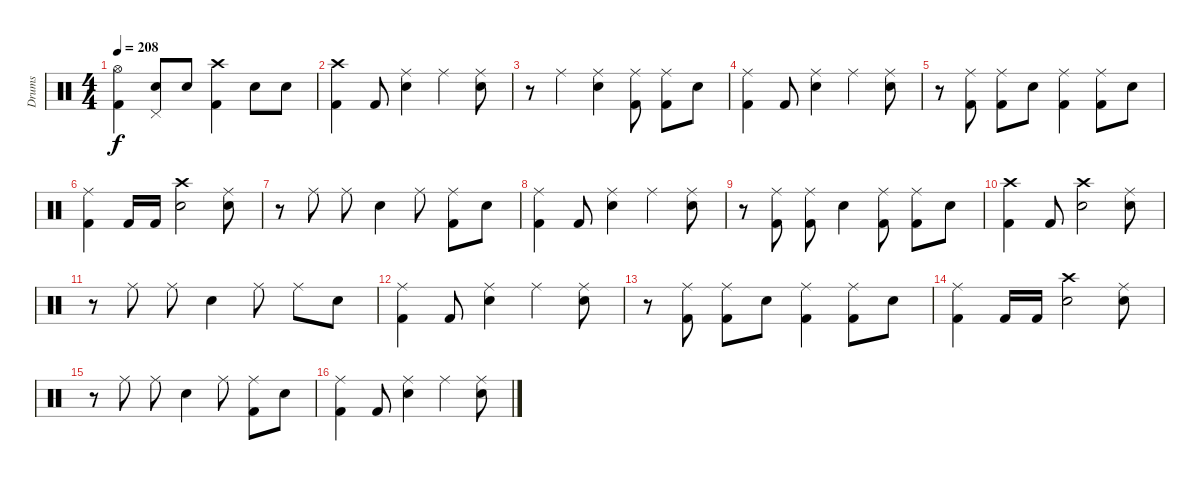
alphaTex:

\track ("Drums" "Drums") {instrument percussion}
\staff {score}
\articulation defaults
\ts (4 4)
\tempo 208
\clef neutral
\ks c
("Hi-Hat (open)" "Kick (hit) 2").4{dy f} ("Pedal Hi-Hat (hit)" "Electric Snare (hit)").8 "Electric Snare (hit)".8 ("Crash high (hit)" "Kick (hit) 2").4 "Electric Snare (hit)".8 "Electric Snare (hit)".8 |
("Crash high (hit)" "Kick (hit) 2").4 "Kick (hit) 2".8 ("Ride (middle)" "Electric Snare (hit)").4 "Ride (middle)".4 ("Ride (middle)" "Electric Snare (hit)").8 |
r.8 "Ride (middle)".4 ("Ride (middle)" "Electric Snare (hit)").4 ("Ride (middle)" "Kick (hit) 2").8 ("Ride (middle)" "Kick (hit) 2").8 "Electric Snare (hit)".8 |
("Ride (middle)" "Kick (hit) 2").4 "Kick (hit) 2".8 ("Ride (middle)" "Electric Snare (hit)").4 "Ride (middle)".4 ("Ride (middle)" "Electric Snare (hit)").8 |
r.8 ("Ride (middle)" "Kick (hit) 2").8 ("Ride (middle)" "Kick (hit) 2").8 "Electric Snare (hit)".8 ("Ride (middle)" "Kick (hit) 2").4 ("Ride (middle)" "Kick (hit) 2").8 "Electric Snare (hit)".8 |
("Ride (middle)" "Kick (hit) 2").4 "Kick (hit) 2".16 "Kick (hit) 2".16 ("Crash high (hit)" "Electric Snare (hit)").2 ("Ride (middle)" "Electric Snare (hit)").8 |
r.8 "Ride (middle)".8 "Ride (middle)".8 "Electric Snare (hit)".4 "Ride (middle)".8 ("Ride (middle)" "Kick (hit) 2").8 "Electric Snare (hit)".8 |
("Ride (middle)" "Kick (hit) 2").4 "Kick (hit) 2".8 ("Ride (middle)" "Electric Snare (hit)").4 "Ride (middle)".4 ("Ride (middle)" "Electric Snare (hit)").8 |
r.8 ("Ride (middle)" "Kick (hit) 2").8 ("Ride (middle)" "Kick (hit) 2").8 "Electric Snare (hit)".4 ("Ride (middle)" "Kick (hit) 2").8 ("Ride (middle)" "Kick (hit) 2").8 "Electric Snare (hit)".8 |
("Crash high (hit)" "Kick (hit) 2").4 "Kick (hit) 2".8 ("Crash high (hit)" "Electric Snare (hit)").2 ("Ride (middle)" "Electric Snare (hit)").8 |
r.8 "Ride (middle)".8 "Ride (middle)".8 "Electric Snare (hit)".4 "Ride (middle)".8 "Ride (middle)".8 "Electric Snare (hit)".8 |
("Ride (middle)" "Kick (hit) 2").4 "Kick (hit) 2".8 ("Ride (middle)" "Electric Snare (hit)").4 "Ride (middle)".4 ("Ride (middle)" "Electric Snare (hit)").8 |
r.8 ("Ride (middle)" "Kick (hit) 2").8 ("Ride (middle)" "Kick (hit) 2").8 "Electric Snare (hit)".8 ("Ride (middle)" "Kick (hit) 2").4 ("Ride (middle)" "Kick (hit) 2").8 "Electric Snare (hit)".8 |
("Ride (middle)" "Kick (hit) 2").4 "Kick (hit) 2".16 "Kick (hit) 2".16 ("Crash high (hit)" "Electric Snare (hit)").2 ("Ride (middle)" "Electric Snare (hit)").8 |
r.8 "Ride (middle)".8 "Ride (middle)".8 "Electric Snare (hit)".4 "Ride (middle)".8 ("Ride (middle)" "Kick (hit) 2").8 "Electric Snare (hit)".8 |
("Ride (middle)" "Kick (hit) 2").4 "Kick (hit) 2".8 ("Ride (middle)" "Electric Snare (hit)").4 "Ride (middle)".4 ("Ride (middle)" "Electric Snare (hit)").8
